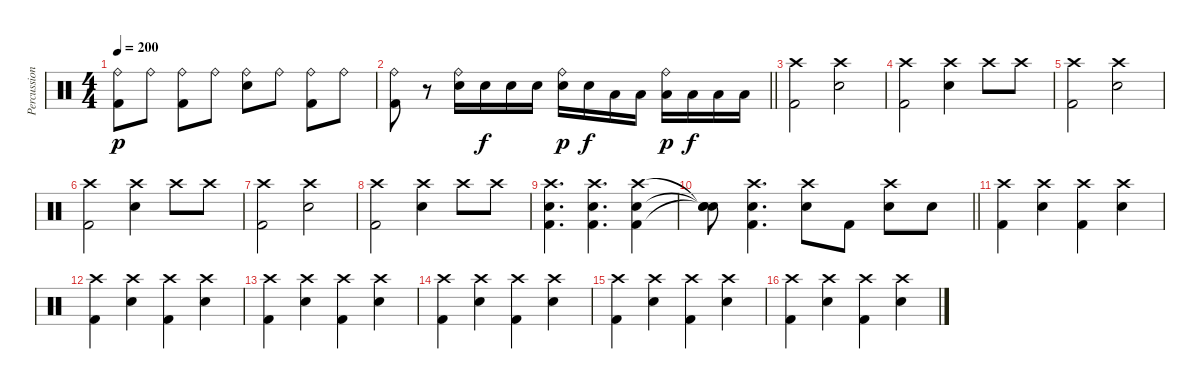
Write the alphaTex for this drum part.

\track ("Percussion" "Percussion") {instrument percussion}
\staff {score}
\articulation defaults
\ts (4 4)
\tempo 200
\clef neutral
\ks c
("Ride (bell)" "Kick (hit) 2").8{dy p} "Ride (bell)".8 ("Ride (bell)" "Kick (hit) 2").8 "Ride (bell)".8 ("Ride (bell)" "Electric Snare (hit)").8 "Ride (bell)".8 ("Ride (bell)" "Kick (hit) 2").8 "Ride (bell)".8 |
\barLineRight lightlight
("Ride (bell)" "Kick (hit) 2").8 r.8 ("Ride (bell)" "Electric Snare (hit)").16 "Electric Snare (hit)".16{dy f} "Electric Snare (hit)".16 "Electric Snare (hit)".16 ("Ride (bell)" "Electric Snare (hit)").16{dy p} "Electric Snare (hit)".16{dy f} "Low Floor Tom (hit)".16 "Low Floor Tom (hit)".16 ("Ride (bell)" "Low Floor Tom (hit)").16{dy p} "Low Floor Tom (hit)".16{dy f} "Low Floor Tom (hit)".16 "Low Floor Tom (hit)".16 |
("Crash high (hit)" "Kick (hit) 2").2 ("Crash high (hit)" "Electric Snare (hit)").2 |
("Crash high (hit)" "Kick (hit) 2").2 ("Crash high (hit)" "Electric Snare (hit)").4 "Crash high (hit)".8 "Crash high (hit)".8 |
("Crash high (hit)" "Kick (hit) 2").2 ("Crash high (hit)" "Electric Snare (hit)").2 |
("Crash high (hit)" "Kick (hit) 2").2 ("Crash high (hit)" "Electric Snare (hit)").4 "Crash high (hit)".8 "Crash high (hit)".8 |
("Crash high (hit)" "Kick (hit) 2").2 ("Crash high (hit)" "Electric Snare (hit)").2 |
("Crash high (hit)" "Kick (hit) 2").2 ("Crash high (hit)" "Electric Snare (hit)").4 "Crash high (hit)".8 "Crash high (hit)".8 |
("Crash high (hit)" "Electric Snare (hit)" "Kick (hit) 2").4{d} ("Crash high (hit)" "Electric Snare (hit)" "Kick (hit) 2").4{d} ("Crash high (hit)" "Electric Snare (hit)" "Kick (hit) 2").4 |
\barLineRight lightlight
("Snare (hit)"{t} "Snare (hit)"{t} "Snare (hit)"{t}).8 ("Crash high (hit)" "Electric Snare (hit)" "Kick (hit) 2").4{d} ("Crash high (hit)" "Electric Snare (hit)").8 "Kick (hit) 2".8 ("Crash high (hit)" "Electric Snare (hit)").8 "Electric Snare (hit)".8 |
("Crash high (hit)" "Kick (hit) 2").4 ("Crash high (hit)" "Electric Snare (hit)").4 ("Crash high (hit)" "Kick (hit) 2").4 ("Crash high (hit)" "Electric Snare (hit)").4 |
("Crash high (hit)" "Kick (hit) 2").4 ("Crash high (hit)" "Electric Snare (hit)").4 ("Crash high (hit)" "Kick (hit) 2").4 ("Crash high (hit)" "Electric Snare (hit)").4 |
("Crash high (hit)" "Kick (hit) 2").4 ("Crash high (hit)" "Electric Snare (hit)").4 ("Crash high (hit)" "Kick (hit) 2").4 ("Crash high (hit)" "Electric Snare (hit)").4 |
("Crash high (hit)" "Kick (hit) 2").4 ("Crash high (hit)" "Electric Snare (hit)").4 ("Crash high (hit)" "Kick (hit) 2").4 ("Crash high (hit)" "Electric Snare (hit)").4 |
("Crash high (hit)" "Kick (hit) 2").4 ("Crash high (hit)" "Electric Snare (hit)").4 ("Crash high (hit)" "Kick (hit) 2").4 ("Crash high (hit)" "Electric Snare (hit)").4 |
("Crash high (hit)" "Kick (hit) 2").4 ("Crash high (hit)" "Electric Snare (hit)").4 ("Crash high (hit)" "Kick (hit) 2").4 ("Crash high (hit)" "Electric Snare (hit)").4
